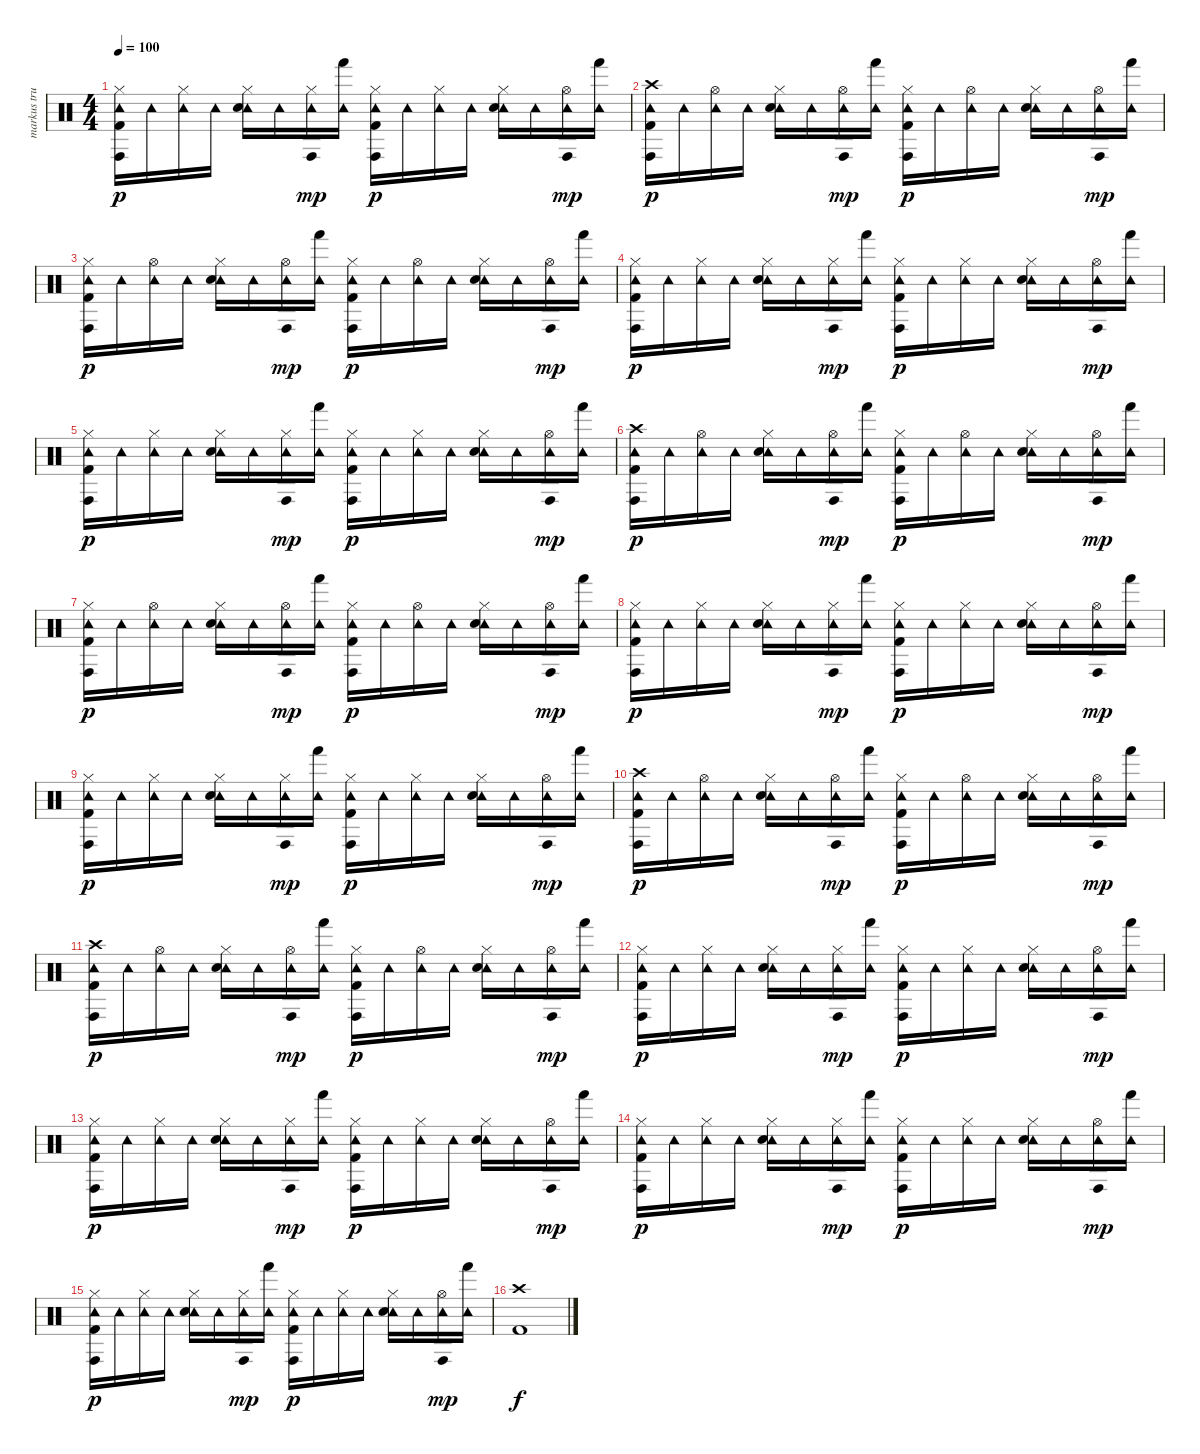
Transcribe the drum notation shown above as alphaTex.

\track ("markus trummor" "markus tru") {instrument percussion}
\staff {score}
\articulation defaults
\ts (4 4)
\tempo 100
\clef neutral
\ks c
("Tambourine (hit)" "Conga high (hit)" "Hi-Hat (closed)" "Kick (hit) 2").16{dy p} "Tambourine (hit)".16 ("Tambourine (hit)" "Hi-Hat (closed)").16 "Tambourine (hit)".16 ("Tambourine (hit)" "Hi-Hat (closed)" "Snare (hit) 2").16 "Tambourine (hit)".16 ("Tambourine (hit)" "Conga high (hit)" "Hi-Hat (closed)").16{dy mp} ("Tambourine (hit)" "Hand (hit)").16 ("Tambourine (hit)" "Conga high (hit)" "Hi-Hat (closed)" "Kick (hit) 2").16{dy p} "Tambourine (hit)".16 ("Tambourine (hit)" "Hi-Hat (closed)").16 "Tambourine (hit)".16 ("Tambourine (hit)" "Hi-Hat (closed)" "Snare (hit) 2").16 "Tambourine (hit)".16 ("Tambourine (hit)" "Conga high (hit)" "Hi-Hat (open)").16{dy mp} ("Tambourine (hit)" "Hand (hit)").16 |
("Tambourine (hit)" "Conga high (hit)" "Crash high (hit)" "Kick (hit) 2").16{dy p} "Tambourine (hit)".16 ("Tambourine (hit)" "Hi-Hat (open)").16 "Tambourine (hit)".16 ("Tambourine (hit)" "Hi-Hat (closed)" "Snare (hit) 2").16 "Tambourine (hit)".16 ("Tambourine (hit)" "Conga high (hit)" "Hi-Hat (open)").16{dy mp} ("Tambourine (hit)" "Hand (hit)").16 ("Tambourine (hit)" "Conga high (hit)" "Hi-Hat (closed)" "Kick (hit) 2").16{dy p} "Tambourine (hit)".16 ("Tambourine (hit)" "Hi-Hat (open)").16 "Tambourine (hit)".16 ("Tambourine (hit)" "Hi-Hat (closed)" "Snare (hit) 2").16 "Tambourine (hit)".16 ("Tambourine (hit)" "Conga high (hit)" "Hi-Hat (open)").16{dy mp} ("Tambourine (hit)" "Hand (hit)").16 |
("Tambourine (hit)" "Conga high (hit)" "Hi-Hat (closed)" "Kick (hit) 2").16{dy p} "Tambourine (hit)".16 ("Tambourine (hit)" "Hi-Hat (open)").16 "Tambourine (hit)".16 ("Tambourine (hit)" "Hi-Hat (closed)" "Snare (hit) 2").16 "Tambourine (hit)".16 ("Tambourine (hit)" "Conga high (hit)" "Hi-Hat (open)").16{dy mp} ("Tambourine (hit)" "Hand (hit)").16 ("Tambourine (hit)" "Conga high (hit)" "Hi-Hat (closed)" "Kick (hit) 2").16{dy p} "Tambourine (hit)".16 ("Tambourine (hit)" "Hi-Hat (open)").16 "Tambourine (hit)".16 ("Tambourine (hit)" "Hi-Hat (closed)" "Snare (hit) 2").16 "Tambourine (hit)".16 ("Tambourine (hit)" "Conga high (hit)" "Hi-Hat (open)").16{dy mp} ("Tambourine (hit)" "Hand (hit)").16 |
("Tambourine (hit)" "Conga high (hit)" "Hi-Hat (closed)" "Kick (hit) 2").16{dy p} "Tambourine (hit)".16 ("Tambourine (hit)" "Hi-Hat (closed)").16 "Tambourine (hit)".16 ("Tambourine (hit)" "Hi-Hat (closed)" "Snare (hit) 2").16 "Tambourine (hit)".16 ("Tambourine (hit)" "Conga high (hit)" "Hi-Hat (closed)").16{dy mp} ("Tambourine (hit)" "Hand (hit)").16 ("Tambourine (hit)" "Conga high (hit)" "Hi-Hat (closed)" "Kick (hit) 2").16{dy p} "Tambourine (hit)".16 ("Tambourine (hit)" "Hi-Hat (closed)").16 "Tambourine (hit)".16 ("Tambourine (hit)" "Hi-Hat (closed)" "Snare (hit) 2").16 "Tambourine (hit)".16 ("Tambourine (hit)" "Conga high (hit)" "Hi-Hat (open)").16{dy mp} ("Tambourine (hit)" "Hand (hit)").16 |
("Tambourine (hit)" "Conga high (hit)" "Hi-Hat (closed)" "Kick (hit) 2").16{dy p} "Tambourine (hit)".16 ("Tambourine (hit)" "Hi-Hat (closed)").16 "Tambourine (hit)".16 ("Tambourine (hit)" "Hi-Hat (closed)" "Snare (hit) 2").16 "Tambourine (hit)".16 ("Tambourine (hit)" "Conga high (hit)" "Hi-Hat (closed)").16{dy mp} ("Tambourine (hit)" "Hand (hit)").16 ("Tambourine (hit)" "Conga high (hit)" "Hi-Hat (closed)" "Kick (hit) 2").16{dy p} "Tambourine (hit)".16 ("Tambourine (hit)" "Hi-Hat (closed)").16 "Tambourine (hit)".16 ("Tambourine (hit)" "Hi-Hat (closed)" "Snare (hit) 2").16 "Tambourine (hit)".16 ("Tambourine (hit)" "Conga high (hit)" "Hi-Hat (open)").16{dy mp} ("Tambourine (hit)" "Hand (hit)").16 |
("Tambourine (hit)" "Conga high (hit)" "Crash high (hit)" "Kick (hit) 2").16{dy p} "Tambourine (hit)".16 ("Tambourine (hit)" "Hi-Hat (open)").16 "Tambourine (hit)".16 ("Tambourine (hit)" "Hi-Hat (closed)" "Snare (hit) 2").16 "Tambourine (hit)".16 ("Tambourine (hit)" "Conga high (hit)" "Hi-Hat (open)").16{dy mp} ("Tambourine (hit)" "Hand (hit)").16 ("Tambourine (hit)" "Conga high (hit)" "Hi-Hat (closed)" "Kick (hit) 2").16{dy p} "Tambourine (hit)".16 ("Tambourine (hit)" "Hi-Hat (open)").16 "Tambourine (hit)".16 ("Tambourine (hit)" "Hi-Hat (closed)" "Snare (hit) 2").16 "Tambourine (hit)".16 ("Tambourine (hit)" "Conga high (hit)" "Hi-Hat (open)").16{dy mp} ("Tambourine (hit)" "Hand (hit)").16 |
("Tambourine (hit)" "Conga high (hit)" "Hi-Hat (closed)" "Kick (hit) 2").16{dy p} "Tambourine (hit)".16 ("Tambourine (hit)" "Hi-Hat (open)").16 "Tambourine (hit)".16 ("Tambourine (hit)" "Hi-Hat (closed)" "Snare (hit) 2").16 "Tambourine (hit)".16 ("Tambourine (hit)" "Conga high (hit)" "Hi-Hat (open)").16{dy mp} ("Tambourine (hit)" "Hand (hit)").16 ("Tambourine (hit)" "Conga high (hit)" "Hi-Hat (closed)" "Kick (hit) 2").16{dy p} "Tambourine (hit)".16 ("Tambourine (hit)" "Hi-Hat (open)").16 "Tambourine (hit)".16 ("Tambourine (hit)" "Hi-Hat (closed)" "Snare (hit) 2").16 "Tambourine (hit)".16 ("Tambourine (hit)" "Conga high (hit)" "Hi-Hat (open)").16{dy mp} ("Tambourine (hit)" "Hand (hit)").16 |
("Tambourine (hit)" "Conga high (hit)" "Hi-Hat (closed)" "Kick (hit) 2").16{dy p} "Tambourine (hit)".16 ("Tambourine (hit)" "Hi-Hat (closed)").16 "Tambourine (hit)".16 ("Tambourine (hit)" "Hi-Hat (closed)" "Snare (hit) 2").16 "Tambourine (hit)".16 ("Tambourine (hit)" "Conga high (hit)" "Hi-Hat (closed)").16{dy mp} ("Tambourine (hit)" "Hand (hit)").16 ("Tambourine (hit)" "Conga high (hit)" "Hi-Hat (closed)" "Kick (hit) 2").16{dy p} "Tambourine (hit)".16 ("Tambourine (hit)" "Hi-Hat (closed)").16 "Tambourine (hit)".16 ("Tambourine (hit)" "Hi-Hat (closed)" "Snare (hit) 2").16 "Tambourine (hit)".16 ("Tambourine (hit)" "Conga high (hit)" "Hi-Hat (open)").16{dy mp} ("Tambourine (hit)" "Hand (hit)").16 |
("Tambourine (hit)" "Conga high (hit)" "Hi-Hat (closed)" "Kick (hit) 2").16{dy p} "Tambourine (hit)".16 ("Tambourine (hit)" "Hi-Hat (closed)").16 "Tambourine (hit)".16 ("Tambourine (hit)" "Hi-Hat (closed)" "Snare (hit) 2").16 "Tambourine (hit)".16 ("Tambourine (hit)" "Conga high (hit)" "Hi-Hat (closed)").16{dy mp} ("Tambourine (hit)" "Hand (hit)").16 ("Tambourine (hit)" "Conga high (hit)" "Hi-Hat (closed)" "Kick (hit) 2").16{dy p} "Tambourine (hit)".16 ("Tambourine (hit)" "Hi-Hat (closed)").16 "Tambourine (hit)".16 ("Tambourine (hit)" "Hi-Hat (closed)" "Snare (hit) 2").16 "Tambourine (hit)".16 ("Tambourine (hit)" "Conga high (hit)" "Hi-Hat (open)").16{dy mp} ("Tambourine (hit)" "Hand (hit)").16 |
("Tambourine (hit)" "Conga high (hit)" "Crash high (hit)" "Kick (hit) 2").16{dy p} "Tambourine (hit)".16 ("Tambourine (hit)" "Hi-Hat (open)").16 "Tambourine (hit)".16 ("Tambourine (hit)" "Hi-Hat (closed)" "Snare (hit) 2").16 "Tambourine (hit)".16 ("Tambourine (hit)" "Conga high (hit)" "Hi-Hat (open)").16{dy mp} ("Tambourine (hit)" "Hand (hit)").16 ("Tambourine (hit)" "Conga high (hit)" "Hi-Hat (closed)" "Kick (hit) 2").16{dy p} "Tambourine (hit)".16 ("Tambourine (hit)" "Hi-Hat (open)").16 "Tambourine (hit)".16 ("Tambourine (hit)" "Hi-Hat (closed)" "Snare (hit) 2").16 "Tambourine (hit)".16 ("Tambourine (hit)" "Conga high (hit)" "Hi-Hat (open)").16{dy mp} ("Tambourine (hit)" "Hand (hit)").16 |
("Tambourine (hit)" "Conga high (hit)" "Crash high (hit)" "Kick (hit) 2").16{dy p} "Tambourine (hit)".16 ("Tambourine (hit)" "Hi-Hat (open)").16 "Tambourine (hit)".16 ("Tambourine (hit)" "Hi-Hat (closed)" "Snare (hit) 2").16 "Tambourine (hit)".16 ("Tambourine (hit)" "Conga high (hit)" "Hi-Hat (open)").16{dy mp} ("Tambourine (hit)" "Hand (hit)").16 ("Tambourine (hit)" "Conga high (hit)" "Hi-Hat (closed)" "Kick (hit) 2").16{dy p} "Tambourine (hit)".16 ("Tambourine (hit)" "Hi-Hat (open)").16 "Tambourine (hit)".16 ("Tambourine (hit)" "Hi-Hat (closed)" "Snare (hit) 2").16 "Tambourine (hit)".16 ("Tambourine (hit)" "Conga high (hit)" "Hi-Hat (open)").16{dy mp} ("Tambourine (hit)" "Hand (hit)").16 |
("Tambourine (hit)" "Conga high (hit)" "Hi-Hat (closed)" "Kick (hit) 2").16{dy p} "Tambourine (hit)".16 ("Tambourine (hit)" "Hi-Hat (closed)").16 "Tambourine (hit)".16 ("Tambourine (hit)" "Hi-Hat (closed)" "Snare (hit) 2").16 "Tambourine (hit)".16 ("Tambourine (hit)" "Conga high (hit)" "Hi-Hat (closed)").16{dy mp} ("Tambourine (hit)" "Hand (hit)").16 ("Tambourine (hit)" "Conga high (hit)" "Hi-Hat (closed)" "Kick (hit) 2").16{dy p} "Tambourine (hit)".16 ("Tambourine (hit)" "Hi-Hat (closed)").16 "Tambourine (hit)".16 ("Tambourine (hit)" "Hi-Hat (closed)" "Snare (hit) 2").16 "Tambourine (hit)".16 ("Tambourine (hit)" "Conga high (hit)" "Hi-Hat (open)").16{dy mp} ("Tambourine (hit)" "Hand (hit)").16 |
("Tambourine (hit)" "Conga high (hit)" "Hi-Hat (closed)" "Kick (hit) 2").16{dy p} "Tambourine (hit)".16 ("Tambourine (hit)" "Hi-Hat (closed)").16 "Tambourine (hit)".16 ("Tambourine (hit)" "Hi-Hat (closed)" "Snare (hit) 2").16 "Tambourine (hit)".16 ("Tambourine (hit)" "Conga high (hit)" "Hi-Hat (closed)").16{dy mp} ("Tambourine (hit)" "Hand (hit)").16 ("Tambourine (hit)" "Conga high (hit)" "Hi-Hat (closed)" "Kick (hit) 2").16{dy p} "Tambourine (hit)".16 ("Tambourine (hit)" "Hi-Hat (closed)").16 "Tambourine (hit)".16 ("Tambourine (hit)" "Hi-Hat (closed)" "Snare (hit) 2").16 "Tambourine (hit)".16 ("Tambourine (hit)" "Conga high (hit)" "Hi-Hat (open)").16{dy mp} ("Tambourine (hit)" "Hand (hit)").16 |
("Tambourine (hit)" "Conga high (hit)" "Hi-Hat (closed)" "Kick (hit) 2").16{dy p} "Tambourine (hit)".16 ("Tambourine (hit)" "Hi-Hat (closed)").16 "Tambourine (hit)".16 ("Tambourine (hit)" "Hi-Hat (closed)" "Snare (hit) 2").16 "Tambourine (hit)".16 ("Tambourine (hit)" "Conga high (hit)" "Hi-Hat (closed)").16{dy mp} ("Tambourine (hit)" "Hand (hit)").16 ("Tambourine (hit)" "Conga high (hit)" "Hi-Hat (closed)" "Kick (hit) 2").16{dy p} "Tambourine (hit)".16 ("Tambourine (hit)" "Hi-Hat (closed)").16 "Tambourine (hit)".16 ("Tambourine (hit)" "Hi-Hat (closed)" "Snare (hit) 2").16 "Tambourine (hit)".16 ("Tambourine (hit)" "Conga high (hit)" "Hi-Hat (open)").16{dy mp} ("Tambourine (hit)" "Hand (hit)").16 |
("Tambourine (hit)" "Conga high (hit)" "Hi-Hat (closed)" "Kick (hit) 2").16{dy p} "Tambourine (hit)".16 ("Tambourine (hit)" "Hi-Hat (closed)").16 "Tambourine (hit)".16 ("Tambourine (hit)" "Hi-Hat (closed)" "Snare (hit) 2").16 "Tambourine (hit)".16 ("Tambourine (hit)" "Conga high (hit)" "Hi-Hat (closed)").16{dy mp} ("Tambourine (hit)" "Hand (hit)").16 ("Tambourine (hit)" "Conga high (hit)" "Hi-Hat (closed)" "Kick (hit) 2").16{dy p} "Tambourine (hit)".16 ("Tambourine (hit)" "Hi-Hat (closed)").16 "Tambourine (hit)".16 ("Tambourine (hit)" "Hi-Hat (closed)" "Snare (hit) 2").16 "Tambourine (hit)".16 ("Tambourine (hit)" "Conga high (hit)" "Hi-Hat (open)").16{dy mp} ("Tambourine (hit)" "Hand (hit)").16 |
("Crash high (hit)" "Kick (hit) 2").1{dy f}
